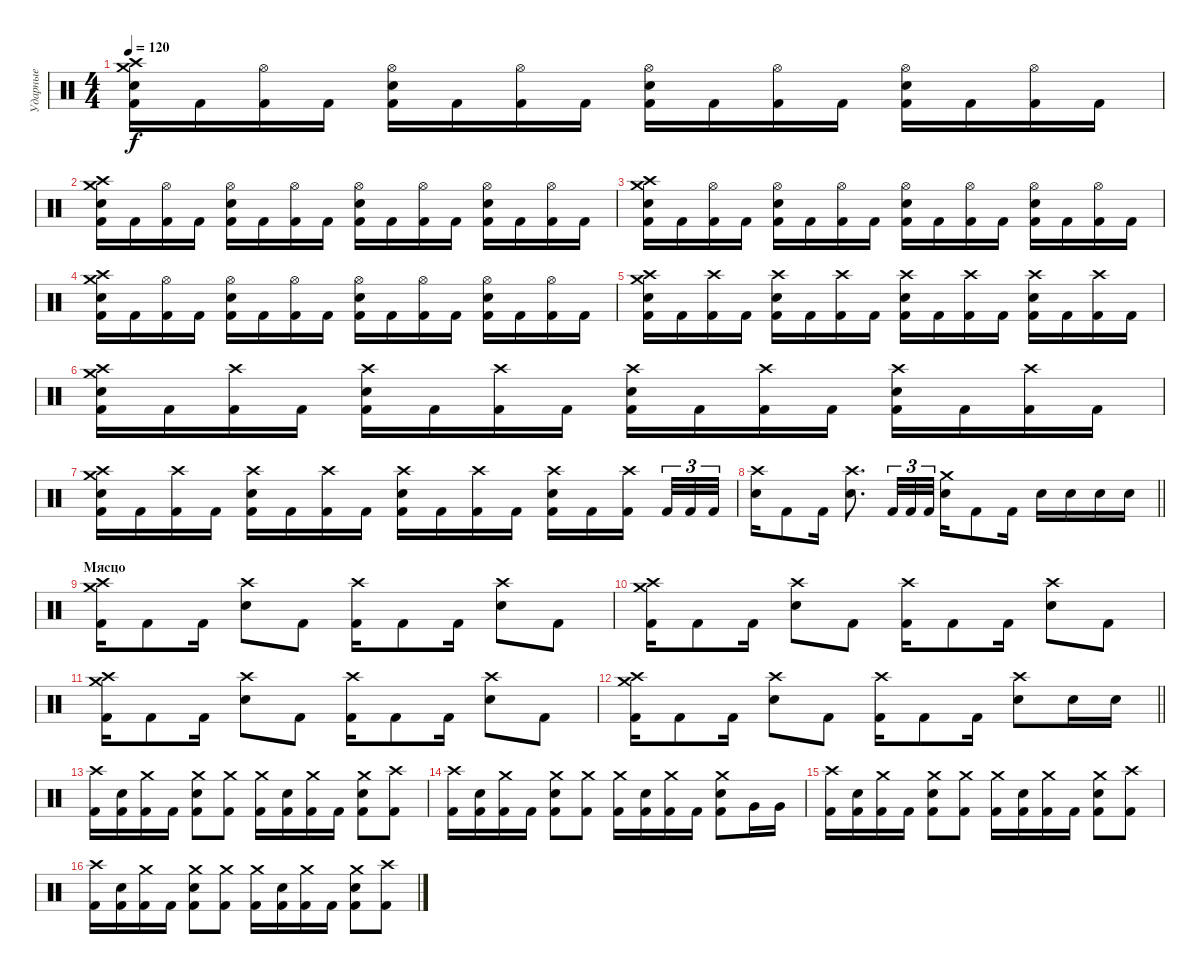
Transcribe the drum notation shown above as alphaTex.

\track ("Ударные" "Ударные") {instrument percussion}
\staff
\articulation defaults
\ts (4 4)
\tempo 120
\clef neutral
\ks c
("Crash medium (hit)" "Crash high (hit)" "Electric Snare (hit)" "Kick (hit) 2").16{dy f} "Kick (hit) 2".16 ("Hi-Hat (open)" "Kick (hit) 2").16 "Kick (hit) 2".16 ("Hi-Hat (open)" "Electric Snare (hit)" "Kick (hit) 2").16 "Kick (hit) 2".16 ("Hi-Hat (open)" "Kick (hit) 2").16 "Kick (hit) 2".16 ("Hi-Hat (open)" "Electric Snare (hit)" "Kick (hit) 2").16 "Kick (hit) 2".16 ("Hi-Hat (open)" "Kick (hit) 2").16 "Kick (hit) 2".16 ("Hi-Hat (open)" "Electric Snare (hit)" "Kick (hit) 2").16 "Kick (hit) 2".16 ("Hi-Hat (open)" "Kick (hit) 2").16 "Kick (hit) 2".16 |
("Crash medium (hit)" "Crash high (hit)" "Electric Snare (hit)" "Kick (hit) 2").16 "Kick (hit) 2".16 ("Hi-Hat (open)" "Kick (hit) 2").16 "Kick (hit) 2".16 ("Hi-Hat (open)" "Electric Snare (hit)" "Kick (hit) 2").16 "Kick (hit) 2".16 ("Hi-Hat (open)" "Kick (hit) 2").16 "Kick (hit) 2".16 ("Hi-Hat (open)" "Electric Snare (hit)" "Kick (hit) 2").16 "Kick (hit) 2".16 ("Hi-Hat (open)" "Kick (hit) 2").16 "Kick (hit) 2".16 ("Hi-Hat (open)" "Electric Snare (hit)" "Kick (hit) 2").16 "Kick (hit) 2".16 ("Hi-Hat (open)" "Kick (hit) 2").16 "Kick (hit) 2".16 |
("Crash medium (hit)" "Crash high (hit)" "Electric Snare (hit)" "Kick (hit) 2").16 "Kick (hit) 2".16 ("Hi-Hat (open)" "Kick (hit) 2").16 "Kick (hit) 2".16 ("Hi-Hat (open)" "Electric Snare (hit)" "Kick (hit) 2").16 "Kick (hit) 2".16 ("Hi-Hat (open)" "Kick (hit) 2").16 "Kick (hit) 2".16 ("Hi-Hat (open)" "Electric Snare (hit)" "Kick (hit) 2").16 "Kick (hit) 2".16 ("Hi-Hat (open)" "Kick (hit) 2").16 "Kick (hit) 2".16 ("Hi-Hat (open)" "Electric Snare (hit)" "Kick (hit) 2").16 "Kick (hit) 2".16 ("Hi-Hat (open)" "Kick (hit) 2").16 "Kick (hit) 2".16 |
("Crash medium (hit)" "Crash high (hit)" "Electric Snare (hit)" "Kick (hit) 2").16 "Kick (hit) 2".16 ("Hi-Hat (open)" "Kick (hit) 2").16 "Kick (hit) 2".16 ("Hi-Hat (open)" "Electric Snare (hit)" "Kick (hit) 2").16 "Kick (hit) 2".16 ("Hi-Hat (open)" "Kick (hit) 2").16 "Kick (hit) 2".16 ("Hi-Hat (open)" "Electric Snare (hit)" "Kick (hit) 2").16 "Kick (hit) 2".16 ("Hi-Hat (open)" "Kick (hit) 2").16 "Kick (hit) 2".16 ("Hi-Hat (open)" "Electric Snare (hit)" "Kick (hit) 2").16 "Kick (hit) 2".16 ("Hi-Hat (open)" "Kick (hit) 2").16 "Kick (hit) 2".16 |
("Crash medium (hit)" "Crash high (hit)" "Electric Snare (hit)" "Kick (hit) 2").16 "Kick (hit) 2".16 ("Crash high (hit)" "Kick (hit) 2").16 "Kick (hit) 2".16 ("Crash high (hit)" "Electric Snare (hit)" "Kick (hit) 2").16 "Kick (hit) 2".16 ("Crash high (hit)" "Kick (hit) 2").16 "Kick (hit) 2".16 ("Crash high (hit)" "Electric Snare (hit)" "Kick (hit) 2").16 "Kick (hit) 2".16 ("Crash high (hit)" "Kick (hit) 2").16 "Kick (hit) 2".16 ("Crash high (hit)" "Electric Snare (hit)" "Kick (hit) 2").16 "Kick (hit) 2".16 ("Crash high (hit)" "Kick (hit) 2").16 "Kick (hit) 2".16 |
("Crash medium (hit)" "Crash high (hit)" "Electric Snare (hit)" "Kick (hit) 2").16 "Kick (hit) 2".16 ("Crash high (hit)" "Kick (hit) 2").16 "Kick (hit) 2".16 ("Crash high (hit)" "Electric Snare (hit)" "Kick (hit) 2").16 "Kick (hit) 2".16 ("Crash high (hit)" "Kick (hit) 2").16 "Kick (hit) 2".16 ("Crash high (hit)" "Electric Snare (hit)" "Kick (hit) 2").16 "Kick (hit) 2".16 ("Crash high (hit)" "Kick (hit) 2").16 "Kick (hit) 2".16 ("Crash high (hit)" "Electric Snare (hit)" "Kick (hit) 2").16 "Kick (hit) 2".16 ("Crash high (hit)" "Kick (hit) 2").16 "Kick (hit) 2".16 |
("Crash medium (hit)" "Crash high (hit)" "Electric Snare (hit)" "Kick (hit) 2").16 "Kick (hit) 2".16 ("Crash high (hit)" "Kick (hit) 2").16 "Kick (hit) 2".16 ("Crash high (hit)" "Electric Snare (hit)" "Kick (hit) 2").16 "Kick (hit) 2".16 ("Crash high (hit)" "Kick (hit) 2").16 "Kick (hit) 2".16 ("Crash high (hit)" "Electric Snare (hit)" "Kick (hit) 2").16 "Kick (hit) 2".16 ("Crash high (hit)" "Kick (hit) 2").16 "Kick (hit) 2".16 ("Crash high (hit)" "Electric Snare (hit)" "Kick (hit) 2").16 "Kick (hit) 2".16 ("Crash high (hit)" "Kick (hit) 2").16{beam splitsecondary} "Kick (hit) 2".32{tu (3 2)} "Kick (hit) 2".32{tu (3 2)} "Kick (hit) 2".32{tu (3 2)} |
\barLineRight lightlight
("Crash high (hit)" "Electric Snare (hit)").16 "Kick (hit) 2".8 "Kick (hit) 2".16 ("Crash high (hit)" "Electric Snare (hit)").8{d} "Kick (hit) 2".32{tu (3 2)} "Kick (hit) 2".32{tu (3 2)} "Kick (hit) 2".32{tu (3 2)} ("Crash medium (hit)" "Electric Snare (hit)").16 "Kick (hit) 2".8 "Kick (hit) 2".16 "Electric Snare (hit)".16 "Electric Snare (hit)".16 "Electric Snare (hit)".16 "Electric Snare (hit)".16 |
\section ("" "Мясцо")
("Crash medium (hit)" "Crash high (hit)" "Kick (hit) 2").16 "Kick (hit) 2".8 "Kick (hit) 2".16 ("Crash high (hit)" "Electric Snare (hit)").8 "Kick (hit) 2".8 ("Crash high (hit)" "Kick (hit) 2").16 "Kick (hit) 2".8 "Kick (hit) 2".16 ("Crash high (hit)" "Electric Snare (hit)").8 "Kick (hit) 2".8 |
("Crash medium (hit)" "Crash high (hit)" "Kick (hit) 2").16 "Kick (hit) 2".8 "Kick (hit) 2".16 ("Crash high (hit)" "Electric Snare (hit)").8 "Kick (hit) 2".8 ("Crash high (hit)" "Kick (hit) 2").16 "Kick (hit) 2".8 "Kick (hit) 2".16 ("Crash high (hit)" "Electric Snare (hit)").8 "Kick (hit) 2".8 |
("Crash medium (hit)" "Crash high (hit)" "Kick (hit) 2").16 "Kick (hit) 2".8 "Kick (hit) 2".16 ("Crash high (hit)" "Electric Snare (hit)").8 "Kick (hit) 2".8 ("Crash high (hit)" "Kick (hit) 2").16 "Kick (hit) 2".8 "Kick (hit) 2".16 ("Crash high (hit)" "Electric Snare (hit)").8 "Kick (hit) 2".8 |
\barLineRight lightlight
("Crash medium (hit)" "Crash high (hit)" "Kick (hit) 2").16 "Kick (hit) 2".8 "Kick (hit) 2".16 ("Crash high (hit)" "Electric Snare (hit)").8 "Kick (hit) 2".8 ("Crash high (hit)" "Kick (hit) 2").16 "Kick (hit) 2".8 "Kick (hit) 2".16 ("Crash high (hit)" "Electric Snare (hit)").8 "Electric Snare (hit)".16 "Electric Snare (hit)".16 |
("Crash high (hit)" "Kick (hit) 2").16 ("Electric Snare (hit)" "Kick (hit) 2").16 ("Crash medium (hit)" "Kick (hit) 2").16 "Kick (hit) 2".16 ("Crash medium (hit)" "Electric Snare (hit)" "Kick (hit) 2").8 ("Crash medium (hit)" "Kick (hit) 2").8 ("Crash medium (hit)" "Kick (hit) 2").16 ("Electric Snare (hit)" "Kick (hit) 2").16 ("Crash medium (hit)" "Kick (hit) 2").16 "Kick (hit) 2".16 ("Crash medium (hit)" "Electric Snare (hit)" "Kick (hit) 2").8 ("Crash high (hit)" "Kick (hit) 2").8 |
("Crash high (hit)" "Kick (hit) 2").16 ("Electric Snare (hit)" "Kick (hit) 2").16 ("Crash medium (hit)" "Kick (hit) 2").16 "Kick (hit) 2".16 ("Crash medium (hit)" "Electric Snare (hit)" "Kick (hit) 2").8 ("Crash medium (hit)" "Kick (hit) 2").8 ("Crash medium (hit)" "Kick (hit) 2").16 ("Electric Snare (hit)" "Kick (hit) 2").16 ("Crash medium (hit)" "Kick (hit) 2").16 "Kick (hit) 2".16 ("Crash medium (hit)" "Electric Snare (hit)" "Kick (hit) 2").8 "Very Low Tom (hit)".16 "Very Low Tom (hit)".16 |
("Crash high (hit)" "Kick (hit) 2").16 ("Electric Snare (hit)" "Kick (hit) 2").16 ("Crash medium (hit)" "Kick (hit) 2").16 "Kick (hit) 2".16 ("Crash medium (hit)" "Electric Snare (hit)" "Kick (hit) 2").8 ("Crash medium (hit)" "Kick (hit) 2").8 ("Crash medium (hit)" "Kick (hit) 2").16 ("Electric Snare (hit)" "Kick (hit) 2").16 ("Crash medium (hit)" "Kick (hit) 2").16 "Kick (hit) 2".16 ("Crash medium (hit)" "Electric Snare (hit)" "Kick (hit) 2").8 ("Crash high (hit)" "Kick (hit) 2").8 |
("Crash high (hit)" "Kick (hit) 2").16 ("Electric Snare (hit)" "Kick (hit) 2").16 ("Crash medium (hit)" "Kick (hit) 2").16 "Kick (hit) 2".16 ("Crash medium (hit)" "Electric Snare (hit)" "Kick (hit) 2").8 ("Crash medium (hit)" "Kick (hit) 2").8 ("Crash medium (hit)" "Kick (hit) 2").16 ("Electric Snare (hit)" "Kick (hit) 2").16 ("Crash medium (hit)" "Kick (hit) 2").16 "Kick (hit) 2".16 ("Crash medium (hit)" "Electric Snare (hit)" "Kick (hit) 2").8 ("Crash high (hit)" "Kick (hit) 2").8
